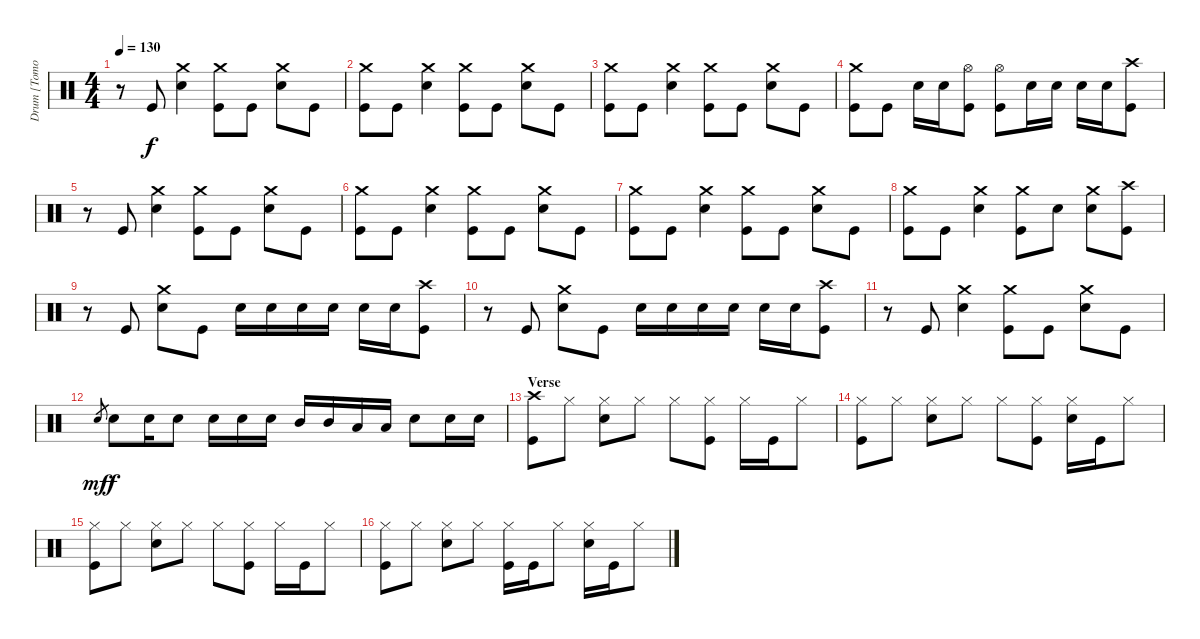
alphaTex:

\track ("Drum [Tomoya]" "Drum [Tomo") {instrument percussion}
\staff {score}
\articulation defaults
\ts (4 4)
\tempo 130
\clef neutral
\ks c
r.8{dy f} "Kick (hit)".8 ("Crash medium (hit)" "Snare (hit) 2").4 ("Crash medium (hit)" "Kick (hit)").8 "Kick (hit)".8 ("Snare (hit) 2" "Crash medium (hit)").8 "Kick (hit)".8 |
("Crash medium (hit)" "Kick (hit)").8 "Kick (hit)".8 ("Crash medium (hit)" "Snare (hit) 2").4 ("Crash medium (hit)" "Kick (hit)").8 "Kick (hit)".8 ("Snare (hit) 2" "Crash medium (hit)").8 "Kick (hit)".8 |
("Crash medium (hit)" "Kick (hit)").8 "Kick (hit)".8 ("Crash medium (hit)" "Snare (hit) 2").4 ("Crash medium (hit)" "Kick (hit)").8 "Kick (hit)".8 ("Snare (hit) 2" "Crash medium (hit)").8 "Kick (hit)".8 |
("Crash medium (hit)" "Kick (hit)").8 "Kick (hit)".8 "Snare (hit) 2".16 "Snare (hit) 2".16 ("Hi-Hat (open)" "Kick (hit)").8 ("Hi-Hat (open)" "Kick (hit)").8 "Snare (hit) 2".16 "Snare (hit) 2".16 "Snare (hit) 2".16 "Snare (hit) 2".16 ("Crash high (hit)" "Kick (hit)").8 |
r.8 "Kick (hit)".8 ("Crash medium (hit)" "Snare (hit) 2").4 ("Crash medium (hit)" "Kick (hit)").8 "Kick (hit)".8 ("Snare (hit) 2" "Crash medium (hit)").8 "Kick (hit)".8 |
("Crash medium (hit)" "Kick (hit)").8 "Kick (hit)".8 ("Crash medium (hit)" "Snare (hit) 2").4 ("Crash medium (hit)" "Kick (hit)").8 "Kick (hit)".8 ("Snare (hit) 2" "Crash medium (hit)").8 "Kick (hit)".8 |
("Crash medium (hit)" "Kick (hit)").8 "Kick (hit)".8 ("Crash medium (hit)" "Snare (hit) 2").4 ("Crash medium (hit)" "Kick (hit)").8 "Kick (hit)".8 ("Snare (hit) 2" "Crash medium (hit)").8 "Kick (hit)".8 |
("Crash medium (hit)" "Kick (hit)").8 "Kick (hit)".8 ("Crash medium (hit)" "Snare (hit) 2").4 ("Crash medium (hit)" "Kick (hit)").8 "Snare (hit) 2".8 ("Snare (hit) 2" "Crash medium (hit)").8 ("Crash high (hit)" "Kick (hit)").8 |
r.8 "Kick (hit)".8 ("Crash medium (hit)" "Snare (hit) 2").8 "Kick (hit)".8 "Snare (hit) 2".16 "Snare (hit) 2".16 "Snare (hit) 2".16 "Snare (hit) 2".16 "Snare (hit) 2".16 "Snare (hit) 2".16 ("Crash high (hit)" "Kick (hit)").8 |
r.8 "Kick (hit)".8 ("Crash medium (hit)" "Snare (hit) 2").8 "Kick (hit)".8 "Snare (hit) 2".16 "Snare (hit) 2".16 "Snare (hit) 2".16 "Snare (hit) 2".16 "Snare (hit) 2".16 "Snare (hit) 2".16 ("Crash high (hit)" "Kick (hit)").8 |
r.8 "Kick (hit)".8 ("Crash medium (hit)" "Snare (hit) 2").4 ("Crash medium (hit)" "Kick (hit)").8 "Kick (hit)".8 ("Snare (hit) 2" "Crash medium (hit)").8 "Kick (hit)".8 |
"Snare (hit)".8{gr dy mf} "Snare (hit) 2".8{dy f} "Snare (hit) 2".16 "Snare (hit) 2".8 "Snare (hit) 2".16 "Snare (hit) 2".16 "Snare (hit) 2".16 "Mid Tom (hit)".16 "Mid Tom (hit)".16 "Low Tom (hit)".16 "Low Tom (hit)".16 "Snare (hit) 2".8 "Snare (hit) 2".16 "Snare (hit) 2".16 |
\section ("" "Verse")
("Crash high (hit)" "Kick (hit)").8 "Hi-Hat (closed)".8 ("Hi-Hat (closed)" "Snare (hit) 2").8 "Hi-Hat (closed)".8 "Hi-Hat (closed)".8 ("Hi-Hat (closed)" "Kick (hit)").8 "Hi-Hat (closed)".16 "Kick (hit)".16 "Hi-Hat (closed)".8 |
("Hi-Hat (closed)" "Kick (hit)").8 "Hi-Hat (closed)".8 ("Hi-Hat (closed)" "Snare (hit) 2").8 "Hi-Hat (closed)".8 "Hi-Hat (closed)".8 ("Hi-Hat (closed)" "Kick (hit)").8 ("Hi-Hat (closed)" "Snare (hit) 2").16 "Kick (hit)".16 "Hi-Hat (closed)".8 |
("Hi-Hat (closed)" "Kick (hit)").8 "Hi-Hat (closed)".8 ("Hi-Hat (closed)" "Snare (hit) 2").8 "Hi-Hat (closed)".8 "Hi-Hat (closed)".8 ("Hi-Hat (closed)" "Kick (hit)").8 "Hi-Hat (closed)".16 "Kick (hit)".16 "Hi-Hat (closed)".8 |
("Hi-Hat (closed)" "Kick (hit)").8 "Hi-Hat (closed)".8 ("Hi-Hat (closed)" "Snare (hit) 2").8 "Hi-Hat (closed)".8 ("Hi-Hat (closed)" "Kick (hit)").16 "Kick (hit)".16 "Hi-Hat (closed)".8 ("Hi-Hat (closed)" "Snare (hit) 2").16 "Kick (hit)".16 "Hi-Hat (closed)".8
